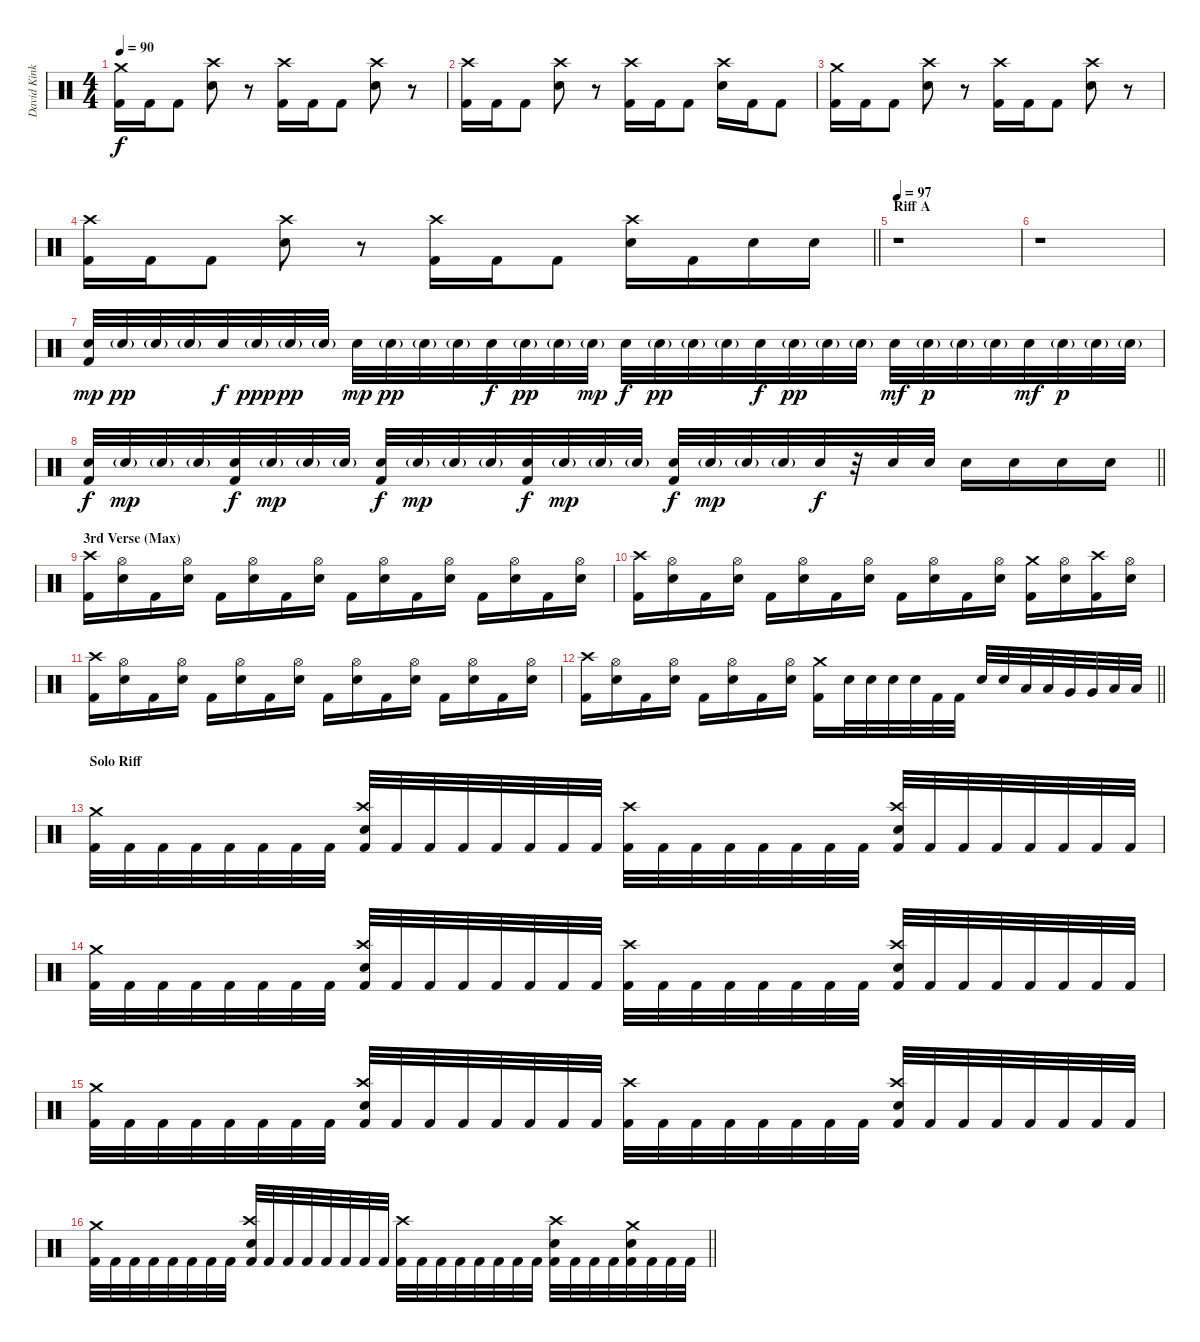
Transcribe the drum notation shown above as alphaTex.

\track ("David Kinkade" "David Kink") {instrument percussion}
\staff {score}
\articulation defaults
\ts (4 4)
\tempo 90
\clef neutral
\ks c
("Crash medium (hit)" "Kick (hit) 2").16{dy f} "Kick (hit) 2".16 "Kick (hit) 2".8 ("Crash high (hit)" "Snare (hit) 2").8 r.8 ("Crash high (hit)" "Kick (hit) 2").16 "Kick (hit) 2".16 "Kick (hit) 2".8 ("Crash high (hit)" "Snare (hit) 2").8 r.8 |
("Crash high (hit)" "Kick (hit) 2").16 "Kick (hit) 2".16 "Kick (hit) 2".8 ("Crash high (hit)" "Snare (hit) 2").8 r.8 ("Crash high (hit)" "Kick (hit) 2").16 "Kick (hit) 2".16 "Kick (hit) 2".8 ("Crash high (hit)" "Snare (hit) 2").16 "Kick (hit) 2".16 "Kick (hit) 2".8 |
("Crash medium (hit)" "Kick (hit) 2").16 "Kick (hit) 2".16 "Kick (hit) 2".8 ("Crash high (hit)" "Snare (hit) 2").8 r.8 ("Crash high (hit)" "Kick (hit) 2").16 "Kick (hit) 2".16 "Kick (hit) 2".8 ("Crash high (hit)" "Snare (hit) 2").8 r.8 |
\barLineRight lightlight
("Crash high (hit)" "Kick (hit) 2").16 "Kick (hit) 2".16 "Kick (hit) 2".8 ("Crash high (hit)" "Snare (hit) 2").8 r.8 ("Crash high (hit)" "Kick (hit) 2").16 "Kick (hit) 2".16 "Kick (hit) 2".8 ("Crash high (hit)" "Snare (hit) 2").16 "Kick (hit) 2".16 "Snare (hit) 2".16 "Snare (hit) 2".16 |
\section ("" "Riff A")
\tempo 97
r.1 |
r.1 |
("Snare (hit) 2" "Kick (hit) 2").32{dy mp} "Snare (hit) 2"{g}.32{dy pp} "Snare (hit) 2"{g}.32 "Snare (hit) 2"{g}.32 "Snare (hit) 2".32{dy f} "Snare (hit) 2"{g}.32{dy ppp} "Snare (hit) 2"{g}.32{dy pp} "Snare (hit) 2"{g}.32 "Snare (hit) 2".32{dy mp} "Snare (hit) 2"{g}.32{dy pp} "Snare (hit) 2"{g}.32 "Snare (hit) 2"{g}.32 "Snare (hit) 2".32{dy f} "Snare (hit) 2"{g}.32{dy pp} "Snare (hit) 2"{g}.32 "Snare (hit) 2"{g}.32{dy mp} "Snare (hit) 2".32{dy f} "Snare (hit) 2"{g}.32{dy pp} "Snare (hit) 2"{g}.32 "Snare (hit) 2"{g}.32 "Snare (hit) 2".32{dy f} "Snare (hit) 2"{g}.32{dy pp} "Snare (hit) 2"{g}.32 "Snare (hit) 2"{g}.32 "Snare (hit) 2".32{dy mf} "Snare (hit) 2"{g}.32{dy p} "Snare (hit) 2"{g}.32 "Snare (hit) 2"{g}.32 "Snare (hit) 2".32{dy mf} "Snare (hit) 2"{g}.32{dy p} "Snare (hit) 2"{g}.32 "Snare (hit) 2"{g}.32 |
\barLineRight lightlight
("Snare (hit) 2" "Kick (hit) 2").32{dy f} "Snare (hit) 2"{g}.32{dy mp} "Snare (hit) 2"{g}.32 "Snare (hit) 2"{g}.32 ("Snare (hit) 2" "Kick (hit) 2").32{dy f} "Snare (hit) 2"{g}.32{dy mp} "Snare (hit) 2"{g}.32 "Snare (hit) 2"{g}.32 ("Snare (hit) 2" "Kick (hit) 2").32{dy f} "Snare (hit) 2"{g}.32{dy mp} "Snare (hit) 2"{g}.32 "Snare (hit) 2"{g}.32 ("Snare (hit) 2" "Kick (hit) 2").32{dy f} "Snare (hit) 2"{g}.32{dy mp} "Snare (hit) 2"{g}.32 "Snare (hit) 2"{g}.32 ("Snare (hit) 2" "Kick (hit) 2").32{dy f} "Snare (hit) 2"{g}.32{dy mp} "Snare (hit) 2"{g}.32 "Snare (hit) 2"{g}.32 "Snare (hit) 2".32{dy f} r.32 "Snare (hit) 2".32 "Snare (hit) 2".32 "Snare (hit) 2".16 "Snare (hit) 2".16 "Snare (hit) 2".16 "Snare (hit) 2".16 |
\section ("" "3rd Verse (Max)")
("Crash high (hit)" "Kick (hit) 2").16 ("Hi-Hat (open)" "Snare (hit) 2").16 "Kick (hit) 2".16 ("Hi-Hat (open)" "Snare (hit) 2").16 "Kick (hit) 2".16 ("Hi-Hat (open)" "Snare (hit) 2").16 "Kick (hit) 2".16 ("Hi-Hat (open)" "Snare (hit) 2").16 "Kick (hit) 2".16 ("Hi-Hat (open)" "Snare (hit) 2").16 "Kick (hit) 2".16 ("Hi-Hat (open)" "Snare (hit) 2").16 "Kick (hit) 2".16 ("Hi-Hat (open)" "Snare (hit) 2").16 "Kick (hit) 2".16 ("Hi-Hat (open)" "Snare (hit) 2").16 |
("Crash high (hit)" "Kick (hit) 2").16 ("Hi-Hat (open)" "Snare (hit) 2").16 "Kick (hit) 2".16 ("Hi-Hat (open)" "Snare (hit) 2").16 "Kick (hit) 2".16 ("Hi-Hat (open)" "Snare (hit) 2").16 "Kick (hit) 2".16 ("Hi-Hat (open)" "Snare (hit) 2").16 "Kick (hit) 2".16 ("Hi-Hat (open)" "Snare (hit) 2").16 "Kick (hit) 2".16 ("Hi-Hat (open)" "Snare (hit) 2").16 ("Crash medium (hit)" "Kick (hit) 2").16 ("Hi-Hat (open)" "Snare (hit) 2").16 ("Crash high (hit)" "Kick (hit) 2").16 ("Hi-Hat (open)" "Snare (hit) 2").16 |
("Crash high (hit)" "Kick (hit) 2").16 ("Hi-Hat (open)" "Snare (hit) 2").16 "Kick (hit) 2".16 ("Hi-Hat (open)" "Snare (hit) 2").16 "Kick (hit) 2".16 ("Hi-Hat (open)" "Snare (hit) 2").16 "Kick (hit) 2".16 ("Hi-Hat (open)" "Snare (hit) 2").16 "Kick (hit) 2".16 ("Hi-Hat (open)" "Snare (hit) 2").16 "Kick (hit) 2".16 ("Hi-Hat (open)" "Snare (hit) 2").16 "Kick (hit) 2".16 ("Hi-Hat (open)" "Snare (hit) 2").16 "Kick (hit) 2".16 ("Hi-Hat (open)" "Snare (hit) 2").16 |
\barLineRight lightlight
("Crash high (hit)" "Kick (hit) 2").16 ("Hi-Hat (open)" "Snare (hit) 2").16 "Kick (hit) 2".16 ("Hi-Hat (open)" "Snare (hit) 2").16 "Kick (hit) 2".16 ("Hi-Hat (open)" "Snare (hit) 2").16 "Kick (hit) 2".16 ("Hi-Hat (open)" "Snare (hit) 2").16 ("Crash medium (hit)" "Kick (hit) 2").16 "Snare (hit) 2".32 "Snare (hit) 2".32 "Snare (hit) 2".32 "Snare (hit) 2".32 "Kick (hit) 2".32 "Kick (hit) 2".32 "Snare (hit) 2".32 "Snare (hit) 2".32 "Low Tom (hit)".32 "Low Tom (hit)".32 "Very Low Tom (hit)".32 "Very Low Tom (hit)".32 "Low Floor Tom (hit)".32 "Low Floor Tom (hit)".32 |
\section ("" "Solo Riff")
("Crash medium (hit)" "Kick (hit) 2").32 "Kick (hit) 2".32 "Kick (hit) 2".32 "Kick (hit) 2".32 "Kick (hit) 2".32 "Kick (hit) 2".32 "Kick (hit) 2".32 "Kick (hit) 2".32 ("Crash high (hit)" "Snare (hit) 2" "Kick (hit) 2").32 "Kick (hit) 2".32 "Kick (hit) 2".32 "Kick (hit) 2".32 "Kick (hit) 2".32 "Kick (hit) 2".32 "Kick (hit) 2".32 "Kick (hit) 2".32 ("Crash high (hit)" "Kick (hit) 2").32 "Kick (hit) 2".32 "Kick (hit) 2".32 "Kick (hit) 2".32 "Kick (hit) 2".32 "Kick (hit) 2".32 "Kick (hit) 2".32 "Kick (hit) 2".32 ("Crash high (hit)" "Snare (hit) 2" "Kick (hit) 2").32 "Kick (hit) 2".32 "Kick (hit) 2".32 "Kick (hit) 2".32 "Kick (hit) 2".32 "Kick (hit) 2".32 "Kick (hit) 2".32 "Kick (hit) 2".32 |
("Crash medium (hit)" "Kick (hit) 2").32 "Kick (hit) 2".32 "Kick (hit) 2".32 "Kick (hit) 2".32 "Kick (hit) 2".32 "Kick (hit) 2".32 "Kick (hit) 2".32 "Kick (hit) 2".32 ("Crash high (hit)" "Snare (hit) 2" "Kick (hit) 2").32 "Kick (hit) 2".32 "Kick (hit) 2".32 "Kick (hit) 2".32 "Kick (hit) 2".32 "Kick (hit) 2".32 "Kick (hit) 2".32 "Kick (hit) 2".32 ("Crash high (hit)" "Kick (hit) 2").32 "Kick (hit) 2".32 "Kick (hit) 2".32 "Kick (hit) 2".32 "Kick (hit) 2".32 "Kick (hit) 2".32 "Kick (hit) 2".32 "Kick (hit) 2".32 ("Crash high (hit)" "Snare (hit) 2" "Kick (hit) 2").32 "Kick (hit) 2".32 "Kick (hit) 2".32 "Kick (hit) 2".32 "Kick (hit) 2".32 "Kick (hit) 2".32 "Kick (hit) 2".32 "Kick (hit) 2".32 |
("Crash medium (hit)" "Kick (hit) 2").32 "Kick (hit) 2".32 "Kick (hit) 2".32 "Kick (hit) 2".32 "Kick (hit) 2".32 "Kick (hit) 2".32 "Kick (hit) 2".32 "Kick (hit) 2".32 ("Crash high (hit)" "Snare (hit) 2" "Kick (hit) 2").32 "Kick (hit) 2".32 "Kick (hit) 2".32 "Kick (hit) 2".32 "Kick (hit) 2".32 "Kick (hit) 2".32 "Kick (hit) 2".32 "Kick (hit) 2".32 ("Crash high (hit)" "Kick (hit) 2").32 "Kick (hit) 2".32 "Kick (hit) 2".32 "Kick (hit) 2".32 "Kick (hit) 2".32 "Kick (hit) 2".32 "Kick (hit) 2".32 "Kick (hit) 2".32 ("Crash high (hit)" "Snare (hit) 2" "Kick (hit) 2").32 "Kick (hit) 2".32 "Kick (hit) 2".32 "Kick (hit) 2".32 "Kick (hit) 2".32 "Kick (hit) 2".32 "Kick (hit) 2".32 "Kick (hit) 2".32 |
\barLineRight lightlight
("Crash medium (hit)" "Kick (hit) 2").32 "Kick (hit) 2".32 "Kick (hit) 2".32 "Kick (hit) 2".32 "Kick (hit) 2".32 "Kick (hit) 2".32 "Kick (hit) 2".32 "Kick (hit) 2".32 ("Crash high (hit)" "Snare (hit) 2" "Kick (hit) 2").32 "Kick (hit) 2".32 "Kick (hit) 2".32 "Kick (hit) 2".32 "Kick (hit) 2".32 "Kick (hit) 2".32 "Kick (hit) 2".32 "Kick (hit) 2".32 ("Crash high (hit)" "Kick (hit) 2").32 "Kick (hit) 2".32 "Kick (hit) 2".32 "Kick (hit) 2".32 "Kick (hit) 2".32 "Kick (hit) 2".32 "Kick (hit) 2".32 "Kick (hit) 2".32 ("Crash high (hit)" "Snare (hit) 2" "Kick (hit) 2").32 "Kick (hit) 2".32 "Kick (hit) 2".32 "Kick (hit) 2".32 ("Crash medium (hit)" "Snare (hit) 2" "Kick (hit) 2").32 "Kick (hit) 2".32 "Kick (hit) 2".32 "Kick (hit) 2".32
